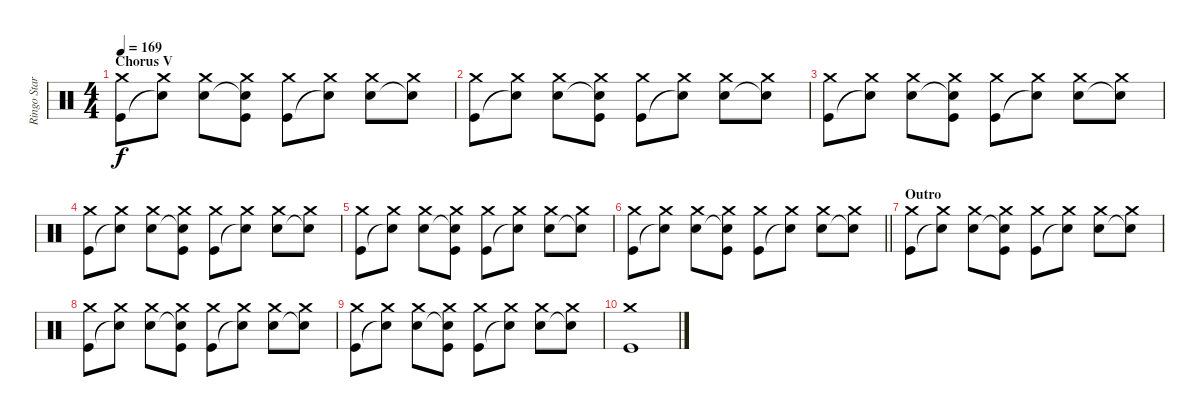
\track ("Ringo Starr" "Ringo Star") {instrument percussion}
\staff {score}
\articulation defaults
\ts (4 4)
\section ("" "Chorus V")
\tempo 169
\clef neutral
\ks c
("Crash medium (hit)" "Kick (hit)").8{dy f} ("Crash medium (hit)" "Snare (hit)"{t}).8 ("Crash medium (hit)" "Snare (hit) 2").8 ("Crash medium (hit)" "Snare (hit)"{t} "Kick (hit)").8 ("Crash medium (hit)" "Kick (hit)").8 ("Crash medium (hit)" "Snare (hit)"{t}).8 ("Crash medium (hit)" "Snare (hit) 2").8 ("Crash medium (hit)" "Snare (hit)"{t}).8 |
("Crash medium (hit)" "Kick (hit)").8 ("Crash medium (hit)" "Snare (hit)"{t}).8 ("Crash medium (hit)" "Snare (hit) 2").8 ("Crash medium (hit)" "Snare (hit)"{t} "Kick (hit)").8 ("Crash medium (hit)" "Kick (hit)").8 ("Crash medium (hit)" "Snare (hit)"{t}).8 ("Crash medium (hit)" "Snare (hit) 2").8 ("Crash medium (hit)" "Snare (hit)"{t}).8 |
("Crash medium (hit)" "Kick (hit)").8 ("Crash medium (hit)" "Snare (hit)"{t}).8 ("Crash medium (hit)" "Snare (hit) 2").8 ("Crash medium (hit)" "Snare (hit)"{t} "Kick (hit)").8 ("Crash medium (hit)" "Kick (hit)").8 ("Crash medium (hit)" "Snare (hit)"{t}).8 ("Crash medium (hit)" "Snare (hit) 2").8 ("Crash medium (hit)" "Snare (hit)"{t}).8 |
("Crash medium (hit)" "Kick (hit)").8 ("Crash medium (hit)" "Snare (hit)"{t}).8 ("Crash medium (hit)" "Snare (hit) 2").8 ("Crash medium (hit)" "Snare (hit)"{t} "Kick (hit)").8 ("Crash medium (hit)" "Kick (hit)").8 ("Crash medium (hit)" "Snare (hit)"{t}).8 ("Crash medium (hit)" "Snare (hit) 2").8 ("Crash medium (hit)" "Snare (hit)"{t}).8 |
("Crash medium (hit)" "Kick (hit)").8 ("Crash medium (hit)" "Snare (hit)"{t}).8 ("Crash medium (hit)" "Snare (hit) 2").8 ("Crash medium (hit)" "Snare (hit)"{t} "Kick (hit)").8 ("Crash medium (hit)" "Kick (hit)").8 ("Crash medium (hit)" "Snare (hit)"{t}).8 ("Crash medium (hit)" "Snare (hit) 2").8 ("Crash medium (hit)" "Snare (hit)"{t}).8 |
\barLineRight lightlight
("Crash medium (hit)" "Kick (hit)").8 ("Crash medium (hit)" "Snare (hit)"{t}).8 ("Crash medium (hit)" "Snare (hit) 2").8 ("Crash medium (hit)" "Snare (hit)"{t} "Kick (hit)").8 ("Crash medium (hit)" "Kick (hit)").8 ("Crash medium (hit)" "Snare (hit)"{t}).8 ("Crash medium (hit)" "Snare (hit) 2").8 ("Crash medium (hit)" "Snare (hit)"{t}).8 |
\section ("" "Outro")
("Crash medium (hit)" "Kick (hit)").8 ("Crash medium (hit)" "Snare (hit)"{t}).8 ("Crash medium (hit)" "Snare (hit) 2").8 ("Crash medium (hit)" "Snare (hit)"{t} "Kick (hit)").8 ("Crash medium (hit)" "Kick (hit)").8 ("Crash medium (hit)" "Snare (hit)"{t}).8 ("Crash medium (hit)" "Snare (hit) 2").8 ("Crash medium (hit)" "Snare (hit)"{t}).8 |
("Crash medium (hit)" "Kick (hit)").8 ("Crash medium (hit)" "Snare (hit)"{t}).8 ("Crash medium (hit)" "Snare (hit) 2").8 ("Crash medium (hit)" "Snare (hit)"{t} "Kick (hit)").8 ("Crash medium (hit)" "Kick (hit)").8 ("Crash medium (hit)" "Snare (hit)"{t}).8 ("Crash medium (hit)" "Snare (hit) 2").8 ("Crash medium (hit)" "Snare (hit)"{t}).8 |
("Crash medium (hit)" "Kick (hit)").8 ("Crash medium (hit)" "Snare (hit)"{t}).8 ("Crash medium (hit)" "Snare (hit) 2").8 ("Crash medium (hit)" "Snare (hit)"{t} "Kick (hit)").8 ("Crash medium (hit)" "Kick (hit)").8 ("Crash medium (hit)" "Snare (hit)"{t}).8 ("Crash medium (hit)" "Snare (hit) 2").8 ("Crash medium (hit)" "Snare (hit)"{t}).8 |
("Crash medium (hit)" "Kick (hit)").1
